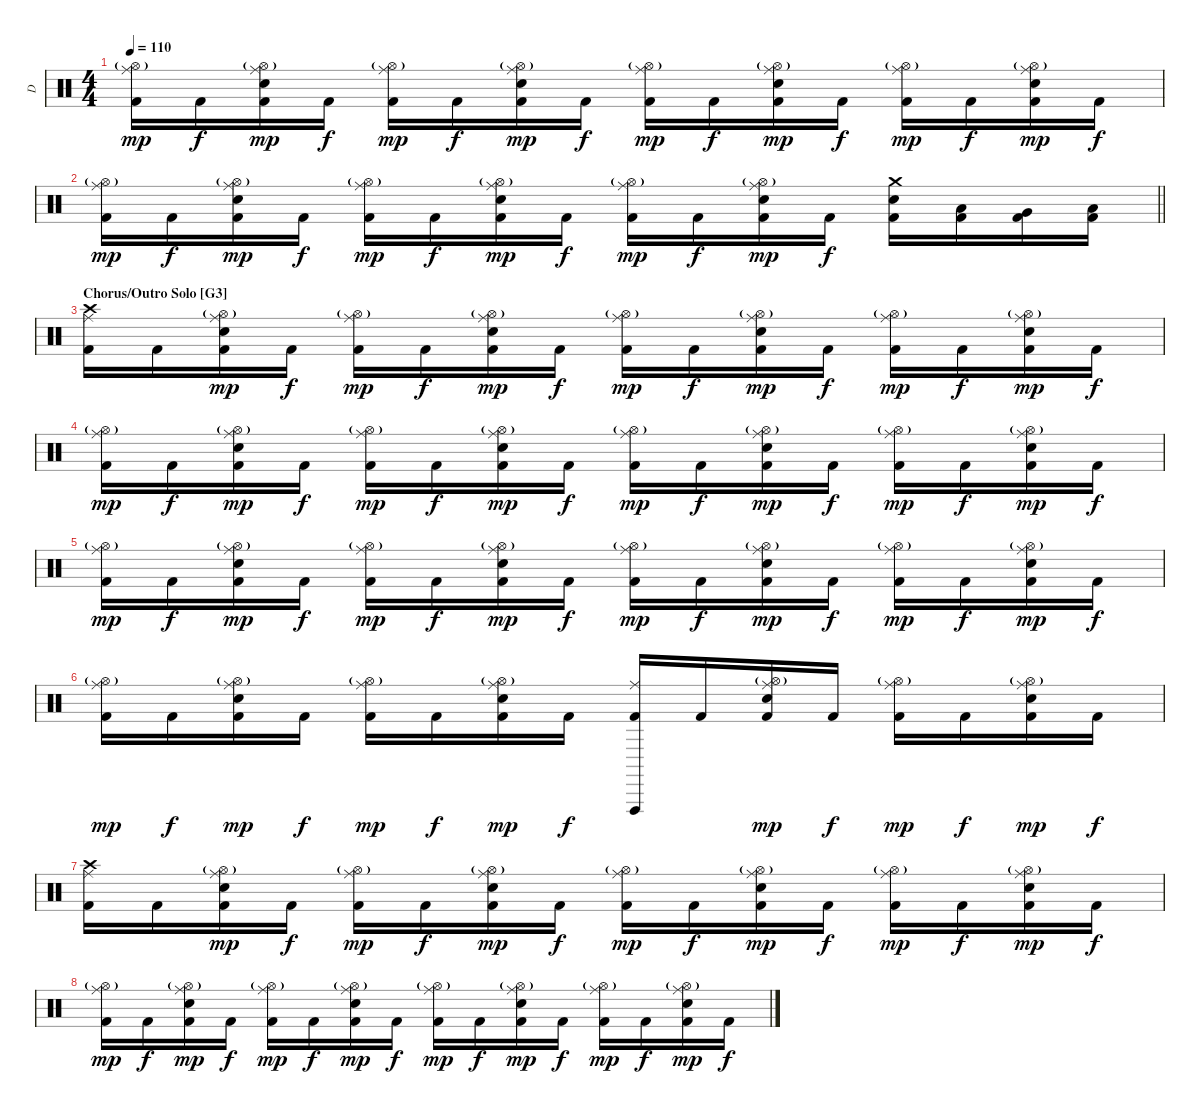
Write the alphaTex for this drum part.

\track ("D" "D") {instrument percussion}
\staff {score}
\articulation defaults
\ts (4 4)
\tempo 110
\clef neutral
\ks c
("Ride (middle)" "Hi-Hat (open)"{g} "Kick (hit) 2").16{dy mp} "Kick (hit) 2".16{dy f} ("Ride (middle)" "Hi-Hat (open)"{g} "Electric Snare (hit)" "Kick (hit) 2").16{dy mp} "Kick (hit) 2".16{dy f} ("Ride (middle)" "Hi-Hat (open)"{g} "Kick (hit) 2").16{dy mp} "Kick (hit) 2".16{dy f} ("Ride (middle)" "Hi-Hat (open)"{g} "Electric Snare (hit)" "Kick (hit) 2").16{dy mp} "Kick (hit) 2".16{dy f} ("Ride (middle)" "Hi-Hat (open)"{g} "Kick (hit) 2").16{dy mp} "Kick (hit) 2".16{dy f} ("Ride (middle)" "Hi-Hat (open)"{g} "Electric Snare (hit)" "Kick (hit) 2").16{dy mp} "Kick (hit) 2".16{dy f} ("Ride (middle)" "Hi-Hat (open)"{g} "Kick (hit) 2").16{dy mp} "Kick (hit) 2".16{dy f} ("Ride (middle)" "Hi-Hat (open)"{g} "Electric Snare (hit)" "Kick (hit) 2").16{dy mp} "Kick (hit) 2".16{dy f} |
\barLineRight lightlight
("Ride (middle)" "Hi-Hat (open)"{g} "Kick (hit) 2").16{dy mp} "Kick (hit) 2".16{dy f} ("Ride (middle)" "Hi-Hat (open)"{g} "Electric Snare (hit)" "Kick (hit) 2").16{dy mp} "Kick (hit) 2".16{dy f} ("Ride (middle)" "Hi-Hat (open)"{g} "Kick (hit) 2").16{dy mp} "Kick (hit) 2".16{dy f} ("Ride (middle)" "Hi-Hat (open)"{g} "Electric Snare (hit)" "Kick (hit) 2").16{dy mp} "Kick (hit) 2".16{dy f} ("Ride (middle)" "Hi-Hat (open)"{g} "Kick (hit) 2").16{dy mp} "Kick (hit) 2".16{dy f} ("Ride (middle)" "Hi-Hat (open)"{g} "Electric Snare (hit)" "Kick (hit) 2").16{dy mp} "Kick (hit) 2".16{dy f} ("Crash medium (hit)" "Electric Snare (hit)" "Kick (hit) 2").16 ("Low Tom (hit)" "Kick (hit) 2").16 ("Very Low Tom (hit)" "Kick (hit) 2").16 ("Low Floor Tom (hit)" "Kick (hit) 2").16 |
\section ("" "Chorus/Outro Solo [G3]")
("Crash high (hit)" "Ride (middle)" "Kick (hit) 2").16 "Kick (hit) 2".16 ("Ride (middle)" "Hi-Hat (open)"{g} "Electric Snare (hit)" "Kick (hit) 2").16{dy mp} "Kick (hit) 2".16{dy f} ("Ride (middle)" "Hi-Hat (open)"{g} "Kick (hit) 2").16{dy mp} "Kick (hit) 2".16{dy f} ("Ride (middle)" "Hi-Hat (open)"{g} "Electric Snare (hit)" "Kick (hit) 2").16{dy mp} "Kick (hit) 2".16{dy f} ("Ride (middle)" "Hi-Hat (open)"{g} "Kick (hit) 2").16{dy mp} "Kick (hit) 2".16{dy f} ("Ride (middle)" "Hi-Hat (open)"{g} "Electric Snare (hit)" "Kick (hit) 2").16{dy mp} "Kick (hit) 2".16{dy f} ("Ride (middle)" "Hi-Hat (open)"{g} "Kick (hit) 2").16{dy mp} "Kick (hit) 2".16{dy f} ("Ride (middle)" "Hi-Hat (open)"{g} "Electric Snare (hit)" "Kick (hit) 2").16{dy mp} "Kick (hit) 2".16{dy f} |
("Ride (middle)" "Hi-Hat (open)"{g} "Kick (hit) 2").16{dy mp} "Kick (hit) 2".16{dy f} ("Ride (middle)" "Hi-Hat (open)"{g} "Electric Snare (hit)" "Kick (hit) 2").16{dy mp} "Kick (hit) 2".16{dy f} ("Ride (middle)" "Hi-Hat (open)"{g} "Kick (hit) 2").16{dy mp} "Kick (hit) 2".16{dy f} ("Ride (middle)" "Hi-Hat (open)"{g} "Electric Snare (hit)" "Kick (hit) 2").16{dy mp} "Kick (hit) 2".16{dy f} ("Ride (middle)" "Hi-Hat (open)"{g} "Kick (hit) 2").16{dy mp} "Kick (hit) 2".16{dy f} ("Ride (middle)" "Hi-Hat (open)"{g} "Electric Snare (hit)" "Kick (hit) 2").16{dy mp} "Kick (hit) 2".16{dy f} ("Ride (middle)" "Hi-Hat (open)"{g} "Kick (hit) 2").16{dy mp} "Kick (hit) 2".16{dy f} ("Ride (middle)" "Hi-Hat (open)"{g} "Electric Snare (hit)" "Kick (hit) 2").16{dy mp} "Kick (hit) 2".16{dy f} |
("Ride (middle)" "Hi-Hat (open)"{g} "Kick (hit) 2").16{dy mp} "Kick (hit) 2".16{dy f} ("Ride (middle)" "Hi-Hat (open)"{g} "Electric Snare (hit)" "Kick (hit) 2").16{dy mp} "Kick (hit) 2".16{dy f} ("Ride (middle)" "Hi-Hat (open)"{g} "Kick (hit) 2").16{dy mp} "Kick (hit) 2".16{dy f} ("Ride (middle)" "Hi-Hat (open)"{g} "Electric Snare (hit)" "Kick (hit) 2").16{dy mp} "Kick (hit) 2".16{dy f} ("Ride (middle)" "Hi-Hat (open)"{g} "Kick (hit) 2").16{dy mp} "Kick (hit) 2".16{dy f} ("Ride (middle)" "Hi-Hat (open)"{g} "Electric Snare (hit)" "Kick (hit) 2").16{dy mp} "Kick (hit) 2".16{dy f} ("Ride (middle)" "Hi-Hat (open)"{g} "Kick (hit) 2").16{dy mp} "Kick (hit) 2".16{dy f} ("Ride (middle)" "Hi-Hat (open)"{g} "Electric Snare (hit)" "Kick (hit) 2").16{dy mp} "Kick (hit) 2".16{dy f} |
("Ride (middle)" "Hi-Hat (open)"{g} "Kick (hit) 2").16{dy mp} "Kick (hit) 2".16{dy f} ("Ride (middle)" "Hi-Hat (open)"{g} "Electric Snare (hit)" "Kick (hit) 2").16{dy mp} "Kick (hit) 2".16{dy f} ("Ride (middle)" "Hi-Hat (open)"{g} "Kick (hit) 2").16{dy mp} "Kick (hit) 2".16{dy f} ("Ride (middle)" "Hi-Hat (open)"{g} "Electric Snare (hit)" "Kick (hit) 2").16{dy mp} "Kick (hit) 2".16{dy f} ("Ride (middle)" "Vibraslap (hit)" "Kick (hit) 2").16 "Kick (hit) 2".16 ("Ride (middle)" "Hi-Hat (open)"{g} "Electric Snare (hit)" "Kick (hit) 2").16{dy mp} "Kick (hit) 2".16{dy f} ("Ride (middle)" "Hi-Hat (open)"{g} "Kick (hit) 2").16{dy mp} "Kick (hit) 2".16{dy f} ("Ride (middle)" "Hi-Hat (open)"{g} "Electric Snare (hit)" "Kick (hit) 2").16{dy mp} "Kick (hit) 2".16{dy f} |
("Crash high (hit)" "Ride (middle)" "Kick (hit) 2").16 "Kick (hit) 2".16 ("Ride (middle)" "Hi-Hat (open)"{g} "Electric Snare (hit)" "Kick (hit) 2").16{dy mp} "Kick (hit) 2".16{dy f} ("Ride (middle)" "Hi-Hat (open)"{g} "Kick (hit) 2").16{dy mp} "Kick (hit) 2".16{dy f} ("Ride (middle)" "Hi-Hat (open)"{g} "Electric Snare (hit)" "Kick (hit) 2").16{dy mp} "Kick (hit) 2".16{dy f} ("Ride (middle)" "Hi-Hat (open)"{g} "Kick (hit) 2").16{dy mp} "Kick (hit) 2".16{dy f} ("Ride (middle)" "Hi-Hat (open)"{g} "Electric Snare (hit)" "Kick (hit) 2").16{dy mp} "Kick (hit) 2".16{dy f} ("Ride (middle)" "Hi-Hat (open)"{g} "Kick (hit) 2").16{dy mp} "Kick (hit) 2".16{dy f} ("Ride (middle)" "Hi-Hat (open)"{g} "Electric Snare (hit)" "Kick (hit) 2").16{dy mp} "Kick (hit) 2".16{dy f} |
("Ride (middle)" "Hi-Hat (open)"{g} "Kick (hit) 2").16{dy mp} "Kick (hit) 2".16{dy f} ("Ride (middle)" "Hi-Hat (open)"{g} "Electric Snare (hit)" "Kick (hit) 2").16{dy mp} "Kick (hit) 2".16{dy f} ("Ride (middle)" "Hi-Hat (open)"{g} "Kick (hit) 2").16{dy mp} "Kick (hit) 2".16{dy f} ("Ride (middle)" "Hi-Hat (open)"{g} "Electric Snare (hit)" "Kick (hit) 2").16{dy mp} "Kick (hit) 2".16{dy f} ("Ride (middle)" "Hi-Hat (open)"{g} "Kick (hit) 2").16{dy mp} "Kick (hit) 2".16{dy f} ("Ride (middle)" "Hi-Hat (open)"{g} "Electric Snare (hit)" "Kick (hit) 2").16{dy mp} "Kick (hit) 2".16{dy f} ("Ride (middle)" "Hi-Hat (open)"{g} "Kick (hit) 2").16{dy mp} "Kick (hit) 2".16{dy f} ("Ride (middle)" "Hi-Hat (open)"{g} "Electric Snare (hit)" "Kick (hit) 2").16{dy mp} "Kick (hit) 2".16{dy f}
